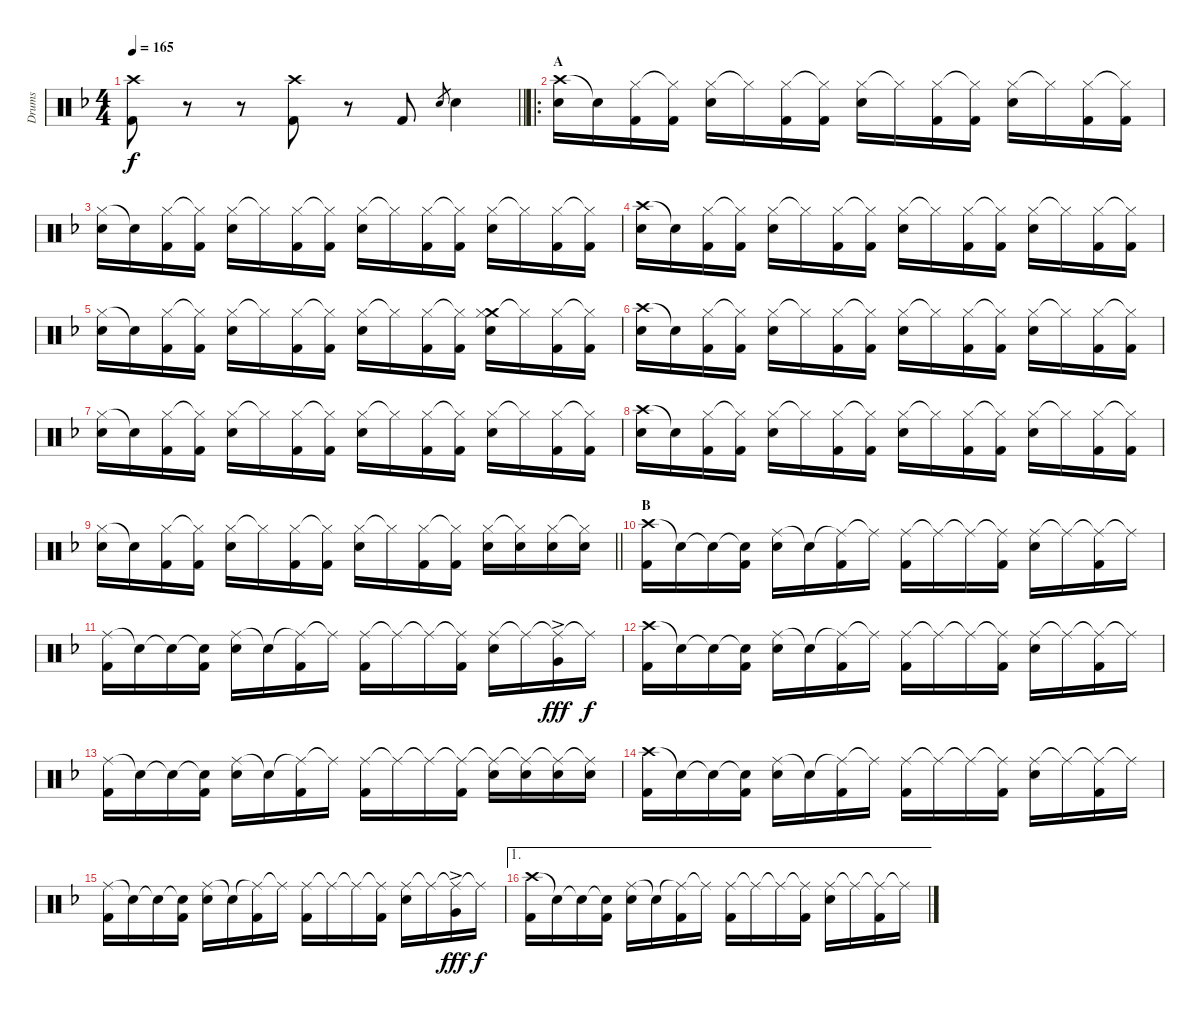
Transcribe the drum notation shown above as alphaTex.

\track ("Drums" "Drums") {instrument percussion}
\staff {score}
\articulation defaults
\ts (4 4)
\tempo 165
\clef neutral
\barLineRight lightlight
\ks f
("Crash high (hit)" "Kick (hit) 2").8{dy f} r.8 r.8 ("Crash high (hit)" "Kick (hit) 2").8 r.8 "Kick (hit) 2".8 "Snare (hit) 2".8{gr} "Snare (hit) 2".4 |
\ro
\section ("" "A")
("Crash high (hit)" "Snare (hit) 2").16 "Snare (hit)"{t}.16 ("Hi-Hat (closed)" "Kick (hit) 2").16 ("Hi-Hat (closed)"{t} "Kick (hit) 2").16 ("Hi-Hat (closed)" "Snare (hit) 2").16 "Hi-Hat (closed)"{t}.16 ("Hi-Hat (closed)" "Kick (hit) 2").16 ("Hi-Hat (closed)"{t} "Kick (hit) 2").16 ("Hi-Hat (closed)" "Snare (hit) 2").16 "Hi-Hat (closed)"{t}.16 ("Hi-Hat (closed)" "Kick (hit) 2").16 ("Hi-Hat (closed)"{t} "Kick (hit) 2").16 ("Hi-Hat (closed)" "Snare (hit) 2").16 "Hi-Hat (closed)"{t}.16 ("Hi-Hat (closed)" "Kick (hit) 2").16 ("Hi-Hat (closed)"{t} "Kick (hit) 2").16 |
("Hi-Hat (closed)" "Snare (hit) 2").16 "Snare (hit)"{t}.16 ("Hi-Hat (closed)" "Kick (hit) 2").16 ("Hi-Hat (closed)"{t} "Kick (hit) 2").16 ("Hi-Hat (closed)" "Snare (hit) 2").16 "Hi-Hat (closed)"{t}.16 ("Hi-Hat (closed)" "Kick (hit) 2").16 ("Hi-Hat (closed)"{t} "Kick (hit) 2").16 ("Hi-Hat (closed)" "Snare (hit) 2").16 "Hi-Hat (closed)"{t}.16 ("Hi-Hat (closed)" "Kick (hit) 2").16 ("Hi-Hat (closed)"{t} "Kick (hit) 2").16 ("Hi-Hat (closed)" "Snare (hit) 2").16 "Hi-Hat (closed)"{t}.16 ("Hi-Hat (closed)" "Kick (hit) 2").16 ("Hi-Hat (closed)"{t} "Kick (hit) 2").16 |
("Crash high (hit)" "Snare (hit) 2").16 "Snare (hit)"{t}.16 ("Hi-Hat (closed)" "Kick (hit) 2").16 ("Hi-Hat (closed)"{t} "Kick (hit) 2").16 ("Hi-Hat (closed)" "Snare (hit) 2").16 "Hi-Hat (closed)"{t}.16 ("Hi-Hat (closed)" "Kick (hit) 2").16 ("Hi-Hat (closed)"{t} "Kick (hit) 2").16 ("Hi-Hat (closed)" "Snare (hit) 2").16 "Hi-Hat (closed)"{t}.16 ("Hi-Hat (closed)" "Kick (hit) 2").16 ("Hi-Hat (closed)"{t} "Kick (hit) 2").16 ("Hi-Hat (closed)" "Snare (hit) 2").16 "Hi-Hat (closed)"{t}.16 ("Hi-Hat (closed)" "Kick (hit) 2").16 ("Hi-Hat (closed)"{t} "Kick (hit) 2").16 |
("Hi-Hat (closed)" "Snare (hit) 2").16 "Snare (hit)"{t}.16 ("Hi-Hat (closed)" "Kick (hit) 2").16 ("Hi-Hat (closed)"{t} "Kick (hit) 2").16 ("Hi-Hat (closed)" "Snare (hit) 2").16 "Hi-Hat (closed)"{t}.16 ("Hi-Hat (closed)" "Kick (hit) 2").16 ("Hi-Hat (closed)"{t} "Kick (hit) 2").16 ("Hi-Hat (closed)" "Snare (hit) 2").16 "Hi-Hat (closed)"{t}.16 ("Hi-Hat (closed)" "Kick (hit) 2").16 ("Hi-Hat (closed)"{t} "Kick (hit) 2").16 ("Crash medium (hit)" "Hi-Hat (closed)" "Snare (hit) 2").16 "Hi-Hat (closed)"{t}.16 ("Hi-Hat (closed)" "Kick (hit) 2").16 ("Hi-Hat (closed)"{t} "Kick (hit) 2").16 |
("Crash high (hit)" "Snare (hit) 2").16 "Snare (hit)"{t}.16 ("Hi-Hat (closed)" "Kick (hit) 2").16 ("Hi-Hat (closed)"{t} "Kick (hit) 2").16 ("Hi-Hat (closed)" "Snare (hit) 2").16 "Hi-Hat (closed)"{t}.16 ("Hi-Hat (closed)" "Kick (hit) 2").16 ("Hi-Hat (closed)"{t} "Kick (hit) 2").16 ("Hi-Hat (closed)" "Snare (hit) 2").16 "Hi-Hat (closed)"{t}.16 ("Hi-Hat (closed)" "Kick (hit) 2").16 ("Hi-Hat (closed)"{t} "Kick (hit) 2").16 ("Hi-Hat (closed)" "Snare (hit) 2").16 "Hi-Hat (closed)"{t}.16 ("Hi-Hat (closed)" "Kick (hit) 2").16 ("Hi-Hat (closed)"{t} "Kick (hit) 2").16 |
("Hi-Hat (closed)" "Snare (hit) 2").16 "Snare (hit)"{t}.16 ("Hi-Hat (closed)" "Kick (hit) 2").16 ("Hi-Hat (closed)"{t} "Kick (hit) 2").16 ("Hi-Hat (closed)" "Snare (hit) 2").16 "Hi-Hat (closed)"{t}.16 ("Hi-Hat (closed)" "Kick (hit) 2").16 ("Hi-Hat (closed)"{t} "Kick (hit) 2").16 ("Hi-Hat (closed)" "Snare (hit) 2").16 "Hi-Hat (closed)"{t}.16 ("Hi-Hat (closed)" "Kick (hit) 2").16 ("Hi-Hat (closed)"{t} "Kick (hit) 2").16 ("Hi-Hat (closed)" "Snare (hit) 2").16 "Hi-Hat (closed)"{t}.16 ("Hi-Hat (closed)" "Kick (hit) 2").16 ("Hi-Hat (closed)"{t} "Kick (hit) 2").16 |
("Crash high (hit)" "Snare (hit) 2").16 "Snare (hit)"{t}.16 ("Hi-Hat (closed)" "Kick (hit) 2").16 ("Hi-Hat (closed)"{t} "Kick (hit) 2").16 ("Hi-Hat (closed)" "Snare (hit) 2").16 "Hi-Hat (closed)"{t}.16 ("Hi-Hat (closed)" "Kick (hit) 2").16 ("Hi-Hat (closed)"{t} "Kick (hit) 2").16 ("Hi-Hat (closed)" "Snare (hit) 2").16 "Hi-Hat (closed)"{t}.16 ("Hi-Hat (closed)" "Kick (hit) 2").16 ("Hi-Hat (closed)"{t} "Kick (hit) 2").16 ("Hi-Hat (closed)" "Snare (hit) 2").16 "Hi-Hat (closed)"{t}.16 ("Hi-Hat (closed)" "Kick (hit) 2").16 ("Hi-Hat (closed)"{t} "Kick (hit) 2").16 |
\barLineRight lightlight
("Hi-Hat (closed)" "Snare (hit) 2").16 "Snare (hit)"{t}.16 ("Hi-Hat (closed)" "Kick (hit) 2").16 ("Hi-Hat (closed)"{t} "Kick (hit) 2").16 ("Hi-Hat (closed)" "Snare (hit) 2").16 "Hi-Hat (closed)"{t}.16 ("Hi-Hat (closed)" "Kick (hit) 2").16 ("Hi-Hat (closed)"{t} "Kick (hit) 2").16 ("Hi-Hat (closed)" "Snare (hit) 2").16 "Hi-Hat (closed)"{t}.16 ("Hi-Hat (closed)" "Kick (hit) 2").16 ("Hi-Hat (closed)"{t} "Kick (hit) 2").16 ("Hi-Hat (closed)" "Snare (hit) 2").16 ("Hi-Hat (closed)"{t} "Snare (hit) 2").16 ("Hi-Hat (closed)" "Snare (hit) 2").16 ("Hi-Hat (closed)"{t} "Snare (hit) 2").16 |
\section ("" "B")
("Crash high (hit)" "Kick (hit) 2").16 "Snare (hit)"{t}.16 "Snare (hit)"{t}.16 ("Snare (hit)"{t} "Kick (hit) 2").16 ("Ride (middle)" "Snare (hit) 2").16 "Snare (hit)"{t}.16 ("Ride (middle)"{t} "Kick (hit) 2").16 "Ride (middle)"{t}.16 ("Ride (middle)" "Kick (hit) 2").16 "Ride (middle)"{t}.16 "Ride (middle)"{t}.16 ("Ride (middle)"{t} "Kick (hit) 2").16 ("Ride (middle)" "Snare (hit) 2").16 "Ride (middle)"{t}.16 ("Ride (middle)"{t} "Kick (hit) 2").16 "Ride (middle)"{t}.16 |
("Ride (middle)" "Kick (hit) 2").16 "Snare (hit)"{t}.16 "Snare (hit)"{t}.16 ("Snare (hit)"{t} "Kick (hit) 2").16 ("Ride (middle)" "Snare (hit) 2").16 "Snare (hit)"{t}.16 ("Ride (middle)"{t} "Kick (hit) 2").16 "Ride (middle)"{t}.16 ("Ride (middle)" "Kick (hit) 2").16 "Ride (middle)"{t}.16 "Ride (middle)"{t}.16 ("Ride (middle)"{t} "Kick (hit) 2").16 ("Ride (middle)" "Snare (hit) 2").16 "Ride (middle)"{t}.16 ("Ride (middle)"{t} "Very Low Tom (hit)"{ac}).16{dy fff} "Ride (middle)"{t}.16{dy f} |
("Crash high (hit)" "Kick (hit) 2").16 "Snare (hit)"{t}.16 "Snare (hit)"{t}.16 ("Snare (hit)"{t} "Kick (hit) 2").16 ("Ride (middle)" "Snare (hit) 2").16 "Snare (hit)"{t}.16 ("Ride (middle)"{t} "Kick (hit) 2").16 "Ride (middle)"{t}.16 ("Ride (middle)" "Kick (hit) 2").16 "Ride (middle)"{t}.16 "Ride (middle)"{t}.16 ("Ride (middle)"{t} "Kick (hit) 2").16 ("Ride (middle)" "Snare (hit) 2").16 "Ride (middle)"{t}.16 ("Ride (middle)"{t} "Kick (hit) 2").16 "Ride (middle)"{t}.16 |
("Ride (middle)" "Kick (hit) 2").16 "Snare (hit)"{t}.16 "Snare (hit)"{t}.16 ("Snare (hit)"{t} "Kick (hit) 2").16 ("Ride (middle)" "Snare (hit) 2").16 "Snare (hit)"{t}.16 ("Ride (middle)"{t} "Kick (hit) 2").16 "Ride (middle)"{t}.16 ("Ride (middle)" "Kick (hit) 2").16 "Ride (middle)"{t}.16 "Ride (middle)"{t}.16 ("Ride (middle)"{t} "Kick (hit) 2").16 ("Ride (middle)"{t} "Snare (hit) 2").16 ("Ride (middle)"{t} "Snare (hit) 2").16 ("Ride (middle)"{t} "Snare (hit) 2").16 ("Ride (middle)"{t} "Snare (hit) 2").16 |
("Crash high (hit)" "Kick (hit) 2").16 "Snare (hit)"{t}.16 "Snare (hit)"{t}.16 ("Snare (hit)"{t} "Kick (hit) 2").16 ("Ride (middle)" "Snare (hit) 2").16 "Snare (hit)"{t}.16 ("Ride (middle)"{t} "Kick (hit) 2").16 "Ride (middle)"{t}.16 ("Ride (middle)" "Kick (hit) 2").16 "Ride (middle)"{t}.16 "Ride (middle)"{t}.16 ("Ride (middle)"{t} "Kick (hit) 2").16 ("Ride (middle)" "Snare (hit) 2").16 "Ride (middle)"{t}.16 ("Ride (middle)"{t} "Kick (hit) 2").16 "Ride (middle)"{t}.16 |
("Ride (middle)" "Kick (hit) 2").16 "Snare (hit)"{t}.16 "Snare (hit)"{t}.16 ("Snare (hit)"{t} "Kick (hit) 2").16 ("Ride (middle)" "Snare (hit) 2").16 "Snare (hit)"{t}.16 ("Ride (middle)"{t} "Kick (hit) 2").16 "Ride (middle)"{t}.16 ("Ride (middle)" "Kick (hit) 2").16 "Ride (middle)"{t}.16 "Ride (middle)"{t}.16 ("Ride (middle)"{t} "Kick (hit) 2").16 ("Ride (middle)" "Snare (hit) 2").16 "Ride (middle)"{t}.16 ("Ride (middle)"{t} "Very Low Tom (hit)"{ac}).16{dy fff} "Ride (middle)"{t}.16{dy f} |
\ae 1
("Crash high (hit)" "Kick (hit) 2").16 "Snare (hit)"{t}.16 "Snare (hit)"{t}.16 ("Snare (hit)"{t} "Kick (hit) 2").16 ("Ride (middle)" "Snare (hit) 2").16 "Snare (hit)"{t}.16 ("Ride (middle)"{t} "Kick (hit) 2").16 "Ride (middle)"{t}.16 ("Ride (middle)" "Kick (hit) 2").16 "Ride (middle)"{t}.16 "Ride (middle)"{t}.16 ("Ride (middle)"{t} "Kick (hit) 2").16 ("Ride (middle)" "Snare (hit) 2").16 "Ride (middle)"{t}.16 ("Ride (middle)"{t} "Kick (hit) 2").16 "Ride (middle)"{t}.16
